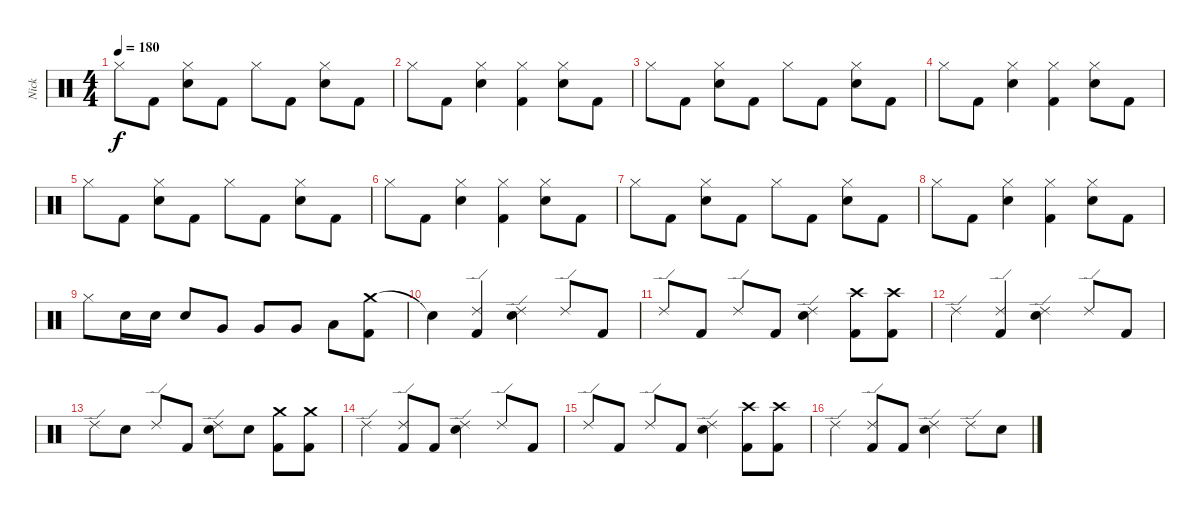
\track ("Nick" "Nick") {instrument percussion}
\staff {score}
\articulation defaults
\ts (4 4)
\tempo 180
\clef neutral
\ks c "Hi-Hat (closed)".8{dy f} "Kick (hit) 2".8
("Hi-Hat (closed)" "Electric Snare (hit)").8 "Kick (hit) 2".8 "Hi-Hat (closed)".8 "Kick (hit) 2".8 ("Hi-Hat (closed)" "Electric Snare (hit)").8 "Kick (hit) 2".8 |
"Hi-Hat (closed)".8 "Kick (hit) 2".8 ("Hi-Hat (closed)" "Electric Snare (hit)").4 ("Hi-Hat (closed)" "Kick (hit) 2").4 ("Hi-Hat (closed)" "Electric Snare (hit)").8 "Kick (hit) 2".8 |
"Hi-Hat (closed)".8 "Kick (hit) 2".8 ("Hi-Hat (closed)" "Electric Snare (hit)").8 "Kick (hit) 2".8 "Hi-Hat (closed)".8 "Kick (hit) 2".8 ("Hi-Hat (closed)" "Electric Snare (hit)").8 "Kick (hit) 2".8 |
"Hi-Hat (closed)".8 "Kick (hit) 2".8 ("Hi-Hat (closed)" "Electric Snare (hit)").4 ("Hi-Hat (closed)" "Kick (hit) 2").4 ("Hi-Hat (closed)" "Electric Snare (hit)").8 "Kick (hit) 2".8 |
"Hi-Hat (closed)".8 "Kick (hit) 2".8 ("Hi-Hat (closed)" "Electric Snare (hit)").8 "Kick (hit) 2".8 "Hi-Hat (closed)".8 "Kick (hit) 2".8 ("Hi-Hat (closed)" "Electric Snare (hit)").8 "Kick (hit) 2".8 |
"Hi-Hat (closed)".8 "Kick (hit) 2".8 ("Hi-Hat (closed)" "Electric Snare (hit)").4 ("Hi-Hat (closed)" "Kick (hit) 2").4 ("Hi-Hat (closed)" "Electric Snare (hit)").8 "Kick (hit) 2".8 |
"Hi-Hat (closed)".8 "Kick (hit) 2".8 ("Hi-Hat (closed)" "Electric Snare (hit)").8 "Kick (hit) 2".8 "Hi-Hat (closed)".8 "Kick (hit) 2".8 ("Hi-Hat (closed)" "Electric Snare (hit)").8 "Kick (hit) 2".8 |
"Hi-Hat (closed)".8 "Kick (hit) 2".8 ("Hi-Hat (closed)" "Electric Snare (hit)").4 ("Hi-Hat (closed)" "Kick (hit) 2").4 ("Hi-Hat (closed)" "Electric Snare (hit)").8 "Kick (hit) 2".8 |
"Hi-Hat (closed)".8 "Electric Snare (hit)".16 "Electric Snare (hit)".16 "Electric Snare (hit)".8 "Very Low Tom (hit)".8 "Very Low Tom (hit)".8 "Very Low Tom (hit)".8 "Low Floor Tom (hit)".8 ("Crash medium (hit)" "Kick (hit) 2").8 |
"Snare (hit)"{t}.4 ("Ride (edge) 2" "Kick (hit) 2").4 ("Ride (edge) 2" "Electric Snare (hit)").4 "Ride (edge) 2".8 "Kick (hit) 2".8 |
"Ride (edge) 2".8 "Kick (hit) 2".8 "Ride (edge) 2".8 "Kick (hit) 2".8 ("Ride (edge) 2" "Electric Snare (hit)").4 ("Crash high (hit)" "Kick (hit) 2").8 ("Crash high (hit)" "Kick (hit) 2").8 |
"Ride (edge) 2".4 ("Ride (edge) 2" "Kick (hit) 2").4 ("Ride (edge) 2" "Electric Snare (hit)").4 "Ride (edge) 2".8 "Kick (hit) 2".8 |
"Ride (edge) 2".8 "Electric Snare (hit)".8 "Ride (edge) 2".8 "Kick (hit) 2".8 ("Ride (edge) 2" "Electric Snare (hit)").8 "Electric Snare (hit)".8 ("Crash medium (hit)" "Kick (hit) 2").8 ("Crash medium (hit)" "Kick (hit) 2").8 |
"Ride (edge) 2".4 ("Ride (edge) 2" "Kick (hit) 2").8 "Kick (hit) 2".8 ("Ride (edge) 2" "Electric Snare (hit)").4 "Ride (edge) 2".8 "Kick (hit) 2".8 |
"Ride (edge) 2".8 "Kick (hit) 2".8 "Ride (edge) 2".8 "Kick (hit) 2".8 ("Ride (edge) 2" "Electric Snare (hit)").4 ("Crash high (hit)" "Kick (hit) 2").8 ("Crash high (hit)" "Kick (hit) 2").8 |
"Ride (edge) 2".4 ("Ride (edge) 2" "Kick (hit) 2").8 "Kick (hit) 2".8 ("Ride (edge) 2" "Electric Snare (hit)").4 "Ride (edge) 2".8 "Electric Snare (hit)".8
